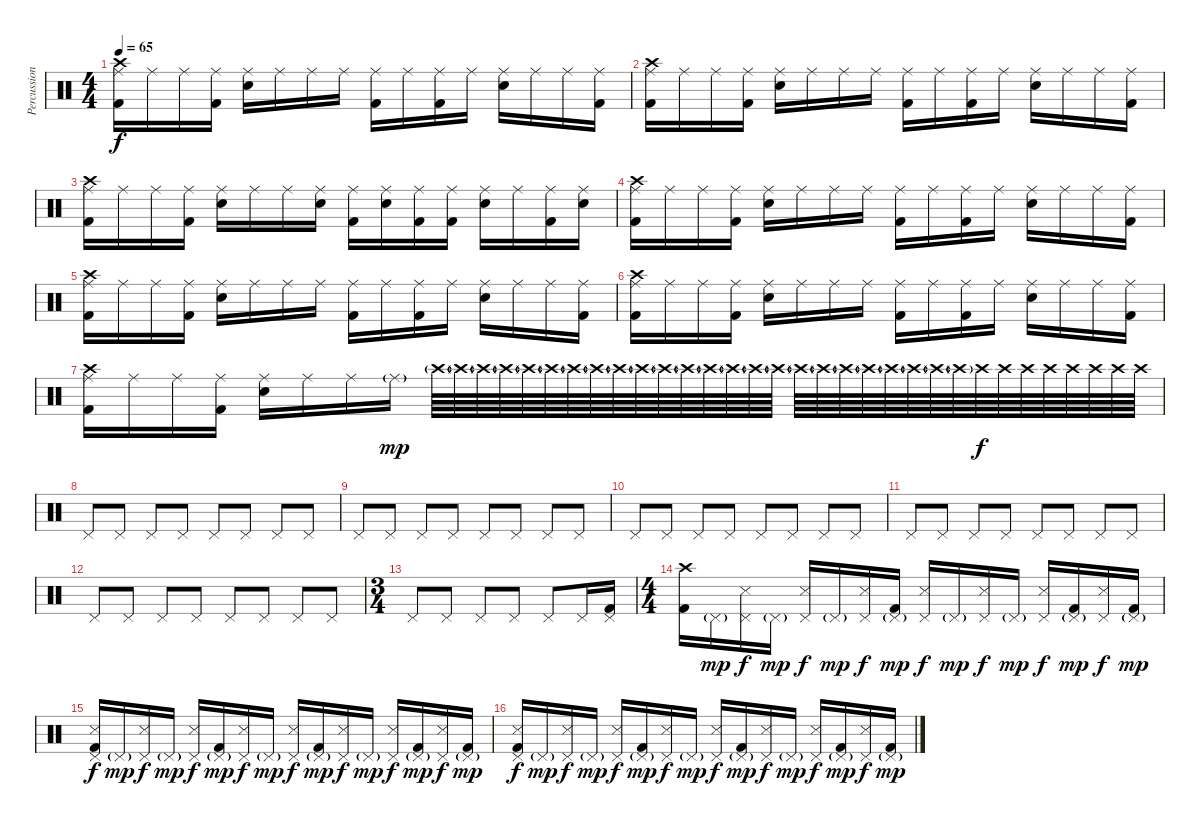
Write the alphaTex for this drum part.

\track ("Percussioni" "Percussion") {instrument percussion}
\staff {score}
\articulation defaults
\ts (4 4)
\tempo 65
\clef neutral
\ks c
("Ride (middle)" "Crash high (hit)" "Kick (hit) 2").16{dy f} "Ride (middle)".16 "Ride (middle)".16 ("Ride (middle)" "Kick (hit) 2").16 ("Ride (middle)" "Snare (hit) 2").16 "Ride (middle)".16 "Ride (middle)".16 "Ride (middle)".16 ("Ride (middle)" "Kick (hit) 2").16 "Ride (middle)".16 ("Ride (middle)" "Kick (hit) 2").16 "Ride (middle)".16 ("Ride (middle)" "Snare (hit) 2").16 "Ride (middle)".16 "Ride (middle)".16 ("Ride (middle)" "Kick (hit) 2").16 |
("Ride (middle)" "Crash high (hit)" "Kick (hit) 2").16 "Ride (middle)".16 "Ride (middle)".16 ("Ride (middle)" "Kick (hit) 2").16 ("Ride (middle)" "Snare (hit) 2").16 "Ride (middle)".16 "Ride (middle)".16 "Ride (middle)".16 ("Ride (middle)" "Kick (hit) 2").16 "Ride (middle)".16 ("Ride (middle)" "Kick (hit) 2").16 "Ride (middle)".16 ("Ride (middle)" "Snare (hit) 2").16 "Ride (middle)".16 "Ride (middle)".16 ("Ride (middle)" "Kick (hit) 2").16 |
("Ride (middle)" "Crash high (hit)" "Kick (hit) 2").16 "Ride (middle)".16 "Ride (middle)".16 ("Ride (middle)" "Kick (hit) 2").16 ("Ride (middle)" "Snare (hit) 2").16 "Ride (middle)".16 "Ride (middle)".16 ("Ride (middle)" "Snare (hit) 2").16 ("Ride (middle)" "Kick (hit) 2").16 ("Ride (middle)" "Snare (hit) 2").16 ("Ride (middle)" "Kick (hit) 2").16 ("Ride (middle)" "Kick (hit) 2").16 ("Ride (middle)" "Snare (hit) 2").16 "Ride (middle)".16 ("Ride (middle)" "Kick (hit) 2").16 ("Ride (middle)" "Snare (hit) 2").16 |
("Ride (middle)" "Crash high (hit)" "Kick (hit) 2").16 "Ride (middle)".16 "Ride (middle)".16 ("Ride (middle)" "Kick (hit) 2").16 ("Ride (middle)" "Snare (hit) 2").16 "Ride (middle)".16 "Ride (middle)".16 "Ride (middle)".16 ("Ride (middle)" "Kick (hit) 2").16 "Ride (middle)".16 ("Ride (middle)" "Kick (hit) 2").16 "Ride (middle)".16 ("Ride (middle)" "Snare (hit) 2").16 "Ride (middle)".16 "Ride (middle)".16 ("Ride (middle)" "Kick (hit) 2").16 |
("Ride (middle)" "Crash high (hit)" "Kick (hit) 2").16 "Ride (middle)".16 "Ride (middle)".16 ("Ride (middle)" "Kick (hit) 2").16 ("Ride (middle)" "Snare (hit) 2").16 "Ride (middle)".16 "Ride (middle)".16 "Ride (middle)".16 ("Ride (middle)" "Kick (hit) 2").16 "Ride (middle)".16 ("Ride (middle)" "Kick (hit) 2").16 "Ride (middle)".16 ("Ride (middle)" "Snare (hit) 2").16 "Ride (middle)".16 "Ride (middle)".16 ("Ride (middle)" "Kick (hit) 2").16 |
("Ride (middle)" "Crash high (hit)" "Kick (hit) 2").16 "Ride (middle)".16 "Ride (middle)".16 ("Ride (middle)" "Kick (hit) 2").16 ("Ride (middle)" "Snare (hit) 2").16 "Ride (middle)".16 "Ride (middle)".16 "Ride (middle)".16 ("Ride (middle)" "Kick (hit) 2").16 "Ride (middle)".16 ("Ride (middle)" "Kick (hit) 2").16 "Ride (middle)".16 ("Ride (middle)" "Snare (hit) 2").16 "Ride (middle)".16 "Ride (middle)".16 ("Ride (middle)" "Kick (hit) 2").16 |
("Ride (middle)" "Crash high (hit)" "Kick (hit) 2").16 "Ride (middle)".16 "Ride (middle)".16 ("Ride (middle)" "Kick (hit) 2").16 ("Ride (middle)" "Snare (hit) 2").16 "Ride (middle)".16 "Ride (middle)".16 "Ride (middle)"{g}.16{dy mp} "Crash high (hit)"{g}.64 "Crash high (hit)"{g}.64 "Crash high (hit)"{g}.64 "Crash high (hit)"{g}.64 "Crash high (hit)"{g}.64 "Crash high (hit)"{g}.64 "Crash high (hit)"{g}.64 "Crash high (hit)"{g}.64 "Crash high (hit)"{g}.64 "Crash high (hit)"{g}.64 "Crash high (hit)"{g}.64 "Crash high (hit)"{g}.64 "Crash high (hit)"{g}.64 "Crash high (hit)"{g}.64 "Crash high (hit)"{g}.64 "Crash high (hit)"{g}.64 "Crash high (hit)"{g}.64 "Crash high (hit)"{g}.64 "Crash high (hit)"{g}.64 "Crash high (hit)"{g}.64 "Crash high (hit)"{g}.64 "Crash high (hit)"{g}.64 "Crash high (hit)"{g}.64 "Crash high (hit)"{g}.64 "Crash high (hit)".64{dy f} "Crash high (hit)".64 "Crash high (hit)".64 "Crash high (hit)".64 "Crash high (hit)".64 "Crash high (hit)".64 "Crash high (hit)".64 "Crash high (hit)".64 |
"Pedal Hi-Hat (hit)".8 "Pedal Hi-Hat (hit)".8 "Pedal Hi-Hat (hit)".8 "Pedal Hi-Hat (hit)".8 "Pedal Hi-Hat (hit)".8 "Pedal Hi-Hat (hit)".8 "Pedal Hi-Hat (hit)".8 "Pedal Hi-Hat (hit)".8 |
"Pedal Hi-Hat (hit)".8 "Pedal Hi-Hat (hit)".8 "Pedal Hi-Hat (hit)".8 "Pedal Hi-Hat (hit)".8 "Pedal Hi-Hat (hit)".8 "Pedal Hi-Hat (hit)".8 "Pedal Hi-Hat (hit)".8 "Pedal Hi-Hat (hit)".8 |
"Pedal Hi-Hat (hit)".8 "Pedal Hi-Hat (hit)".8 "Pedal Hi-Hat (hit)".8 "Pedal Hi-Hat (hit)".8 "Pedal Hi-Hat (hit)".8 "Pedal Hi-Hat (hit)".8 "Pedal Hi-Hat (hit)".8 "Pedal Hi-Hat (hit)".8 |
"Pedal Hi-Hat (hit)".8 "Pedal Hi-Hat (hit)".8 "Pedal Hi-Hat (hit)".8 "Pedal Hi-Hat (hit)".8 "Pedal Hi-Hat (hit)".8 "Pedal Hi-Hat (hit)".8 "Pedal Hi-Hat (hit)".8 "Pedal Hi-Hat (hit)".8 |
"Pedal Hi-Hat (hit)".8 "Pedal Hi-Hat (hit)".8 "Pedal Hi-Hat (hit)".8 "Pedal Hi-Hat (hit)".8 "Pedal Hi-Hat (hit)".8 "Pedal Hi-Hat (hit)".8 "Pedal Hi-Hat (hit)".8 "Pedal Hi-Hat (hit)".8 |
\ts (3 4)
"Pedal Hi-Hat (hit)".8 "Pedal Hi-Hat (hit)".8 "Pedal Hi-Hat (hit)".8 "Pedal Hi-Hat (hit)".8 "Pedal Hi-Hat (hit)".8 "Pedal Hi-Hat (hit)".16 ("Pedal Hi-Hat (hit)" "Kick (hit) 2").16 |
\ts (4 4)
("Crash high (hit)" "Kick (hit) 2").16 "Pedal Hi-Hat (hit)"{g}.16{dy mp} ("Pedal Hi-Hat (hit)" "Snare (side stick) 3").16{dy f} "Pedal Hi-Hat (hit)"{g}.16{dy mp} ("Pedal Hi-Hat (hit)" "Snare (side stick) 3").16{dy f} "Pedal Hi-Hat (hit)"{g}.16{dy mp} ("Pedal Hi-Hat (hit)" "Snare (side stick) 3").16{dy f} ("Pedal Hi-Hat (hit)"{g} "Kick (hit) 2").16{dy mp} ("Pedal Hi-Hat (hit)" "Snare (side stick) 3").16{dy f} "Pedal Hi-Hat (hit)"{g}.16{dy mp} ("Pedal Hi-Hat (hit)" "Snare (side stick) 3").16{dy f} "Pedal Hi-Hat (hit)"{g}.16{dy mp} ("Pedal Hi-Hat (hit)" "Snare (side stick) 3").16{dy f} ("Pedal Hi-Hat (hit)"{g} "Kick (hit) 2").16{dy mp} ("Pedal Hi-Hat (hit)" "Snare (side stick) 3").16{dy f} ("Pedal Hi-Hat (hit)"{g} "Kick (hit) 2").16{dy mp} |
("Pedal Hi-Hat (hit)" "Snare (side stick) 3" "Kick (hit) 2").16{dy f} "Pedal Hi-Hat (hit)"{g}.16{dy mp} ("Pedal Hi-Hat (hit)" "Snare (side stick) 3").16{dy f} "Pedal Hi-Hat (hit)"{g}.16{dy mp} ("Pedal Hi-Hat (hit)" "Snare (side stick) 3").16{dy f} ("Pedal Hi-Hat (hit)"{g} "Kick (hit) 2").16{dy mp} ("Pedal Hi-Hat (hit)" "Snare (side stick) 3").16{dy f} "Pedal Hi-Hat (hit)"{g}.16{dy mp} ("Pedal Hi-Hat (hit)" "Snare (side stick) 3").16{dy f} ("Pedal Hi-Hat (hit)"{g} "Kick (hit) 2").16{dy mp} ("Pedal Hi-Hat (hit)" "Snare (side stick) 3").16{dy f} "Pedal Hi-Hat (hit)"{g}.16{dy mp} ("Pedal Hi-Hat (hit)" "Snare (side stick) 3").16{dy f} ("Pedal Hi-Hat (hit)"{g} "Kick (hit) 2").16{dy mp} ("Pedal Hi-Hat (hit)" "Snare (side stick) 3").16{dy f} ("Pedal Hi-Hat (hit)"{g} "Kick (hit) 2").16{dy mp} |
("Pedal Hi-Hat (hit)" "Snare (side stick) 3" "Kick (hit) 2").16{dy f} "Pedal Hi-Hat (hit)"{g}.16{dy mp} ("Pedal Hi-Hat (hit)" "Snare (side stick) 3").16{dy f} "Pedal Hi-Hat (hit)"{g}.16{dy mp} ("Pedal Hi-Hat (hit)" "Snare (side stick) 3").16{dy f} ("Pedal Hi-Hat (hit)"{g} "Kick (hit) 2").16{dy mp} ("Pedal Hi-Hat (hit)" "Snare (side stick) 3").16{dy f} "Pedal Hi-Hat (hit)"{g}.16{dy mp} ("Pedal Hi-Hat (hit)" "Snare (side stick) 3").16{dy f} ("Pedal Hi-Hat (hit)"{g} "Kick (hit) 2").16{dy mp} ("Pedal Hi-Hat (hit)" "Snare (side stick) 3").16{dy f} "Pedal Hi-Hat (hit)"{g}.16{dy mp} ("Pedal Hi-Hat (hit)" "Snare (side stick) 3").16{dy f} ("Pedal Hi-Hat (hit)"{g} "Kick (hit) 2").16{dy mp} ("Pedal Hi-Hat (hit)" "Snare (side stick) 3").16{dy f} ("Pedal Hi-Hat (hit)"{g} "Kick (hit) 2").16{dy mp}
